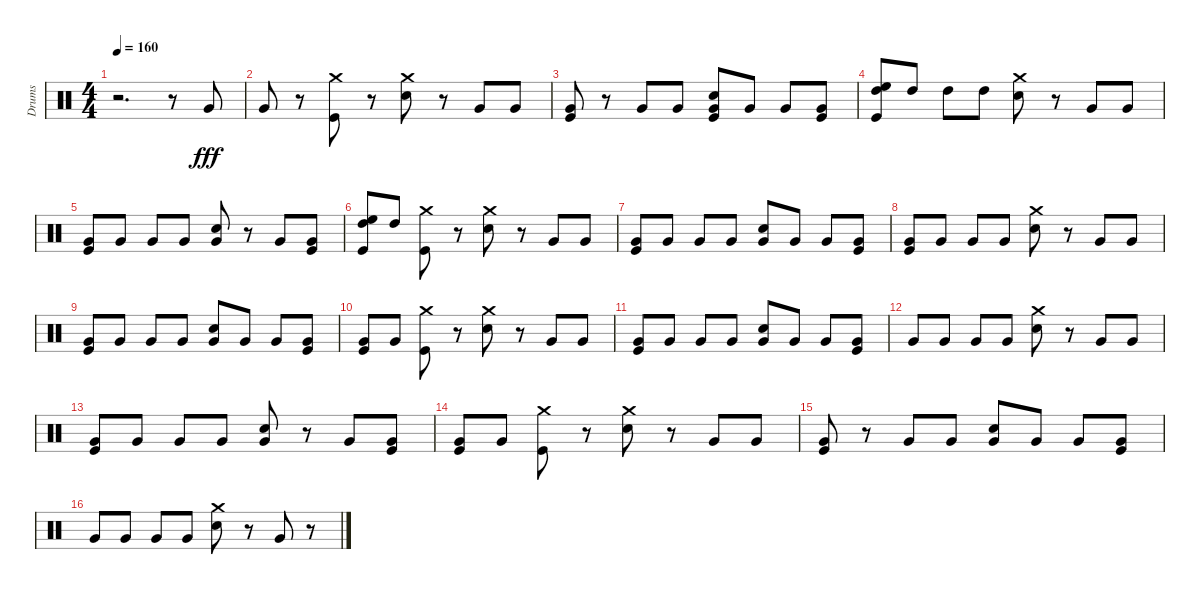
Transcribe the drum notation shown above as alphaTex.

\track ("Drums" "Drums") {instrument percussion}
\staff {score}
\articulation defaults
\ts (4 4)
\tempo 160
\clef neutral
\ks c
r.2{d dy fff} r.8 "Very Low Tom (hit)".8 |
"Very Low Tom (hit)".8 r.8 ("Crash medium (hit)" "Kick (hit)").8 r.8 ("Crash medium (hit)" "Snare (hit) 2").8 r.8 "Very Low Tom (hit)".8 "Very Low Tom (hit)".8 |
("Kick (hit)" "Very Low Tom (hit)").8 r.8 "Very Low Tom (hit)".8 "Very Low Tom (hit)".8 ("Very Low Tom (hit)" "Snare (hit) 2" "Kick (hit)").8 "Very Low Tom (hit)".8 "Very Low Tom (hit)".8 ("Kick (hit)" "Very Low Tom (hit)").8 |
("High Tom (hit)" "High Floor Tom (hit)" "Kick (hit)").8 "High Tom (hit)".8 "High Tom (hit)".8 "High Tom (hit)".8 ("Crash medium (hit)" "Snare (hit) 2").8 r.8 "Very Low Tom (hit)".8 "Very Low Tom (hit)".8 |
("Very Low Tom (hit)" "Kick (hit)").8 "Very Low Tom (hit)".8 "Very Low Tom (hit)".8 "Very Low Tom (hit)".8 ("Snare (hit) 2" "Very Low Tom (hit)").8 r.8 "Very Low Tom (hit)".8 ("Kick (hit)" "Very Low Tom (hit)").8 |
("High Tom (hit)" "High Floor Tom (hit)" "Kick (hit)").8 "High Tom (hit)".8 ("Crash medium (hit)" "Kick (hit)").8 r.8 ("Crash medium (hit)" "Snare (hit) 2").8 r.8 "Very Low Tom (hit)".8 "Very Low Tom (hit)".8 |
("Kick (hit)" "Very Low Tom (hit)").8 "Very Low Tom (hit)".8 "Very Low Tom (hit)".8 "Very Low Tom (hit)".8 ("Snare (hit) 2" "Very Low Tom (hit)").8 "Very Low Tom (hit)".8 "Very Low Tom (hit)".8 ("Kick (hit)" "Very Low Tom (hit)").8 |
("Very Low Tom (hit)" "Kick (hit)").8 "Very Low Tom (hit)".8 "Very Low Tom (hit)".8 "Very Low Tom (hit)".8 ("Crash medium (hit)" "Snare (hit) 2").8 r.8 "Very Low Tom (hit)".8 "Very Low Tom (hit)".8 |
("Kick (hit)" "Very Low Tom (hit)").8 "Very Low Tom (hit)".8 "Very Low Tom (hit)".8 "Very Low Tom (hit)".8 ("Snare (hit) 2" "Very Low Tom (hit)").8 "Very Low Tom (hit)".8 "Very Low Tom (hit)".8 ("Kick (hit)" "Very Low Tom (hit)").8 |
("Very Low Tom (hit)" "Kick (hit)").8 "Very Low Tom (hit)".8 ("Crash medium (hit)" "Kick (hit)").8 r.8 ("Snare (hit) 2" "Crash medium (hit)").8 r.8 "Very Low Tom (hit)".8 "Very Low Tom (hit)".8 |
("Kick (hit)" "Very Low Tom (hit)").8 "Very Low Tom (hit)".8 "Very Low Tom (hit)".8 "Very Low Tom (hit)".8 ("Snare (hit) 2" "Very Low Tom (hit)").8 "Very Low Tom (hit)".8 "Very Low Tom (hit)".8 ("Kick (hit)" "Very Low Tom (hit)").8 |
"Very Low Tom (hit)".8 "Very Low Tom (hit)".8 "Very Low Tom (hit)".8 "Very Low Tom (hit)".8 ("Crash medium (hit)" "Snare (hit) 2").8 r.8 "Very Low Tom (hit)".8 "Very Low Tom (hit)".8 |
("Kick (hit)" "Very Low Tom (hit)").8 "Very Low Tom (hit)".8 "Very Low Tom (hit)".8 "Very Low Tom (hit)".8 ("Snare (hit) 2" "Very Low Tom (hit)").8 r.8 "Very Low Tom (hit)".8 ("Kick (hit)" "Very Low Tom (hit)").8 |
("Very Low Tom (hit)" "Kick (hit)").8 "Very Low Tom (hit)".8 ("Crash medium (hit)" "Kick (hit)").8 r.8 ("Snare (hit) 2" "Crash medium (hit)").8 r.8 "Very Low Tom (hit)".8 "Very Low Tom (hit)".8 |
("Kick (hit)" "Very Low Tom (hit)").8 r.8 "Very Low Tom (hit)".8 "Very Low Tom (hit)".8 ("Snare (hit) 2" "Very Low Tom (hit)").8 "Very Low Tom (hit)".8 "Very Low Tom (hit)".8 ("Kick (hit)" "Very Low Tom (hit)").8 |
"Very Low Tom (hit)".8 "Very Low Tom (hit)".8 "Very Low Tom (hit)".8 "Very Low Tom (hit)".8 ("Crash medium (hit)" "Snare (hit) 2").8 r.8 "Very Low Tom (hit)".8 r.8
